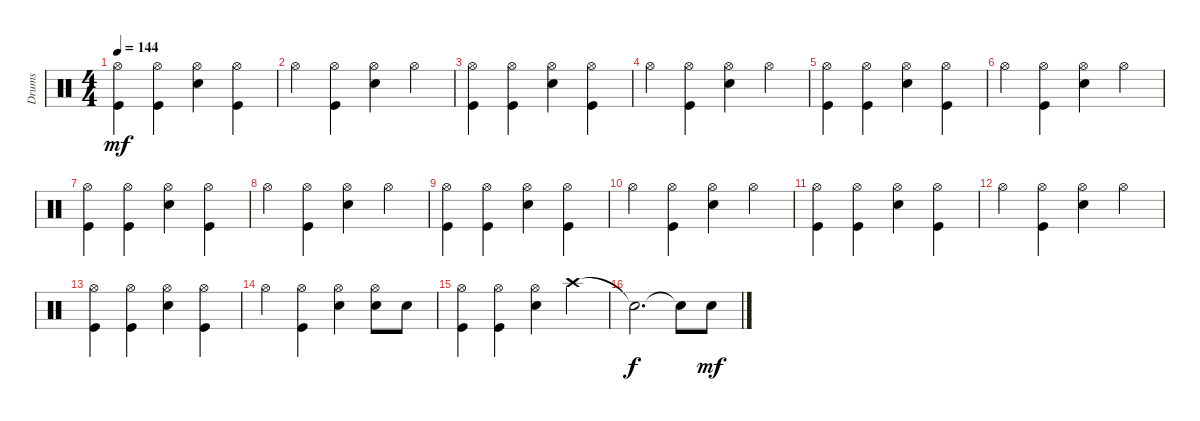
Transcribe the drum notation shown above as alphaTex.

\track ("Drums               " "Drums     ") {instrument percussion}
\staff {score}
\articulation defaults
\ts (4 4)
\tempo 144
\clef neutral
\ks c
("Kick (hit)" "Hi-Hat (open)").4{dy mf} ("Kick (hit)" "Hi-Hat (open)").4 ("Snare (hit) 2" "Hi-Hat (open)").4 ("Kick (hit)" "Hi-Hat (open)").4 |
"Hi-Hat (open)".4 ("Kick (hit)" "Hi-Hat (open)").4 ("Snare (hit) 2" "Hi-Hat (open)").4 "Hi-Hat (open)".4 |
("Kick (hit)" "Hi-Hat (open)").4 ("Kick (hit)" "Hi-Hat (open)").4 ("Snare (hit) 2" "Hi-Hat (open)").4 ("Kick (hit)" "Hi-Hat (open)").4 |
"Hi-Hat (open)".4 ("Kick (hit)" "Hi-Hat (open)").4 ("Snare (hit) 2" "Hi-Hat (open)").4 "Hi-Hat (open)".4 |
("Kick (hit)" "Hi-Hat (open)").4 ("Kick (hit)" "Hi-Hat (open)").4 ("Snare (hit) 2" "Hi-Hat (open)").4 ("Kick (hit)" "Hi-Hat (open)").4 |
"Hi-Hat (open)".4 ("Kick (hit)" "Hi-Hat (open)").4 ("Snare (hit) 2" "Hi-Hat (open)").4 "Hi-Hat (open)".4 |
("Kick (hit)" "Hi-Hat (open)").4 ("Kick (hit)" "Hi-Hat (open)").4 ("Snare (hit) 2" "Hi-Hat (open)").4 ("Kick (hit)" "Hi-Hat (open)").4 |
"Hi-Hat (open)".4 ("Kick (hit)" "Hi-Hat (open)").4 ("Snare (hit) 2" "Hi-Hat (open)").4 "Hi-Hat (open)".4 |
("Kick (hit)" "Hi-Hat (open)").4 ("Kick (hit)" "Hi-Hat (open)").4 ("Snare (hit) 2" "Hi-Hat (open)").4 ("Kick (hit)" "Hi-Hat (open)").4 |
"Hi-Hat (open)".4 ("Kick (hit)" "Hi-Hat (open)").4 ("Snare (hit) 2" "Hi-Hat (open)").4 "Hi-Hat (open)".4 |
("Kick (hit)" "Hi-Hat (open)").4 ("Kick (hit)" "Hi-Hat (open)").4 ("Snare (hit) 2" "Hi-Hat (open)").4 ("Kick (hit)" "Hi-Hat (open)").4 |
"Hi-Hat (open)".4 ("Kick (hit)" "Hi-Hat (open)").4 ("Snare (hit) 2" "Hi-Hat (open)").4 "Hi-Hat (open)".4 |
("Kick (hit)" "Hi-Hat (open)").4 ("Kick (hit)" "Hi-Hat (open)").4 ("Snare (hit) 2" "Hi-Hat (open)").4 ("Kick (hit)" "Hi-Hat (open)").4 |
"Hi-Hat (open)".4 ("Kick (hit)" "Hi-Hat (open)").4 ("Hi-Hat (open)" "Snare (hit) 2").4 ("Hi-Hat (open)" "Snare (hit) 2").8 "Snare (hit) 2".8 |
("Kick (hit)" "Hi-Hat (open)").4 ("Kick (hit)" "Hi-Hat (open)").4 ("Snare (hit) 2" "Hi-Hat (open)").4 "Crash high (hit)".4 |
"Snare (hit)"{t}.2{d dy f} "Snare (hit)"{t}.8 "Snare (hit) 2".8{dy mf}
